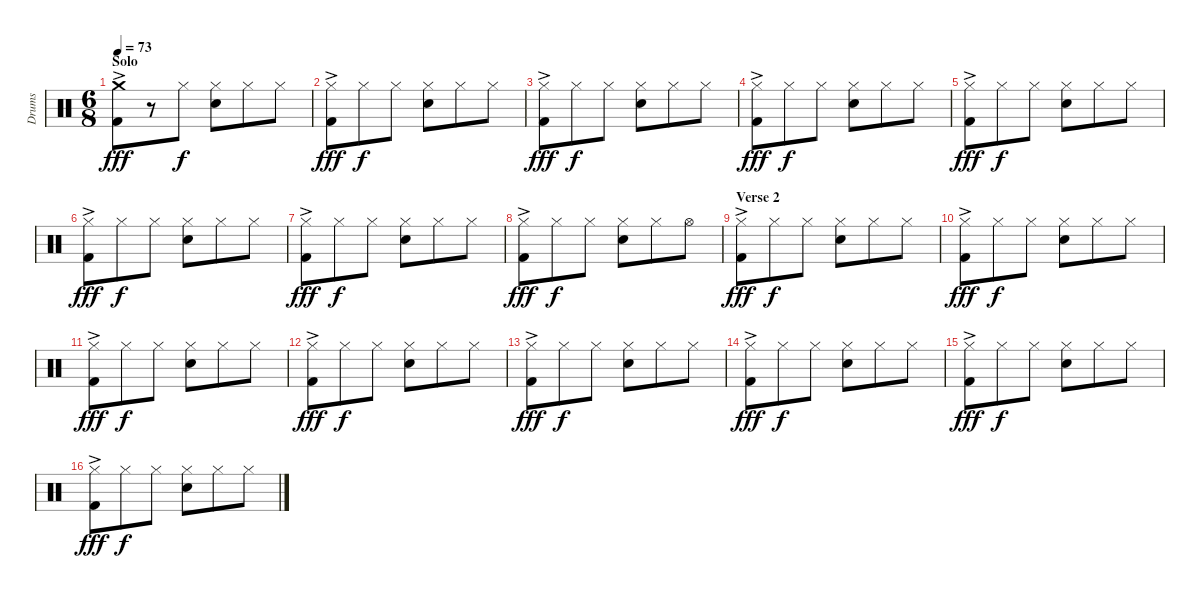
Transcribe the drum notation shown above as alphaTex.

\track ("Drums" "Drums") {instrument percussion}
\staff {score}
\articulation defaults
\ts (6 8)
\section ("" "Solo")
\tempo 73
\clef neutral
\ks c
("Crash medium (hit)" "Kick (hit) 2"{ac}).8{dy fff} r.8 "Hi-Hat (closed)".8{dy f} ("Hi-Hat (closed)" "Electric Snare (hit)").8 "Hi-Hat (closed)".8 "Hi-Hat (closed)".8 |
("Hi-Hat (closed)" "Kick (hit) 2"{ac}).8{dy fff} "Hi-Hat (closed)".8{dy f} "Hi-Hat (closed)".8 ("Hi-Hat (closed)" "Electric Snare (hit)").8 "Hi-Hat (closed)".8 "Hi-Hat (closed)".8 |
("Hi-Hat (closed)" "Kick (hit) 2"{ac}).8{dy fff} "Hi-Hat (closed)".8{dy f} "Hi-Hat (closed)".8 ("Hi-Hat (closed)" "Electric Snare (hit)").8 "Hi-Hat (closed)".8 "Hi-Hat (closed)".8 |
("Hi-Hat (closed)" "Kick (hit) 2"{ac}).8{dy fff} "Hi-Hat (closed)".8{dy f} "Hi-Hat (closed)".8 ("Hi-Hat (closed)" "Electric Snare (hit)").8 "Hi-Hat (closed)".8 "Hi-Hat (closed)".8 |
("Hi-Hat (closed)" "Kick (hit) 2"{ac}).8{dy fff} "Hi-Hat (closed)".8{dy f} "Hi-Hat (closed)".8 ("Hi-Hat (closed)" "Electric Snare (hit)").8 "Hi-Hat (closed)".8 "Hi-Hat (closed)".8 |
("Hi-Hat (closed)" "Kick (hit) 2"{ac}).8{dy fff} "Hi-Hat (closed)".8{dy f} "Hi-Hat (closed)".8 ("Hi-Hat (closed)" "Electric Snare (hit)").8 "Hi-Hat (closed)".8 "Hi-Hat (closed)".8 |
("Hi-Hat (closed)" "Kick (hit) 2"{ac}).8{dy fff} "Hi-Hat (closed)".8{dy f} "Hi-Hat (closed)".8 ("Hi-Hat (closed)" "Electric Snare (hit)").8 "Hi-Hat (closed)".8 "Hi-Hat (closed)".8 |
("Hi-Hat (closed)" "Kick (hit) 2"{ac}).8{dy fff} "Hi-Hat (closed)".8{dy f} "Hi-Hat (closed)".8 ("Hi-Hat (closed)" "Electric Snare (hit)").8 "Hi-Hat (closed)".8 "Hi-Hat (open)".8 |
\section ("" "Verse 2")
("Hi-Hat (closed)" "Kick (hit) 2"{ac}).8{dy fff} "Hi-Hat (closed)".8{dy f} "Hi-Hat (closed)".8 ("Hi-Hat (closed)" "Electric Snare (hit)").8 "Hi-Hat (closed)".8 "Hi-Hat (closed)".8 |
("Hi-Hat (closed)" "Kick (hit) 2"{ac}).8{dy fff} "Hi-Hat (closed)".8{dy f} "Hi-Hat (closed)".8 ("Hi-Hat (closed)" "Electric Snare (hit)").8 "Hi-Hat (closed)".8 "Hi-Hat (closed)".8 |
("Hi-Hat (closed)" "Kick (hit) 2"{ac}).8{dy fff} "Hi-Hat (closed)".8{dy f} "Hi-Hat (closed)".8 ("Hi-Hat (closed)" "Electric Snare (hit)").8 "Hi-Hat (closed)".8 "Hi-Hat (closed)".8 |
("Hi-Hat (closed)" "Kick (hit) 2"{ac}).8{dy fff} "Hi-Hat (closed)".8{dy f} "Hi-Hat (closed)".8 ("Hi-Hat (closed)" "Electric Snare (hit)").8 "Hi-Hat (closed)".8 "Hi-Hat (closed)".8 |
("Hi-Hat (closed)" "Kick (hit) 2"{ac}).8{dy fff} "Hi-Hat (closed)".8{dy f} "Hi-Hat (closed)".8 ("Hi-Hat (closed)" "Electric Snare (hit)").8 "Hi-Hat (closed)".8 "Hi-Hat (closed)".8 |
("Hi-Hat (closed)" "Kick (hit) 2"{ac}).8{dy fff} "Hi-Hat (closed)".8{dy f} "Hi-Hat (closed)".8 ("Hi-Hat (closed)" "Electric Snare (hit)").8 "Hi-Hat (closed)".8 "Hi-Hat (closed)".8 |
("Hi-Hat (closed)" "Kick (hit) 2"{ac}).8{dy fff} "Hi-Hat (closed)".8{dy f} "Hi-Hat (closed)".8 ("Hi-Hat (closed)" "Electric Snare (hit)").8 "Hi-Hat (closed)".8 "Hi-Hat (closed)".8 |
("Hi-Hat (closed)" "Kick (hit) 2"{ac}).8{dy fff} "Hi-Hat (closed)".8{dy f} "Hi-Hat (closed)".8 ("Hi-Hat (closed)" "Electric Snare (hit)").8 "Hi-Hat (closed)".8 "Hi-Hat (closed)".8
